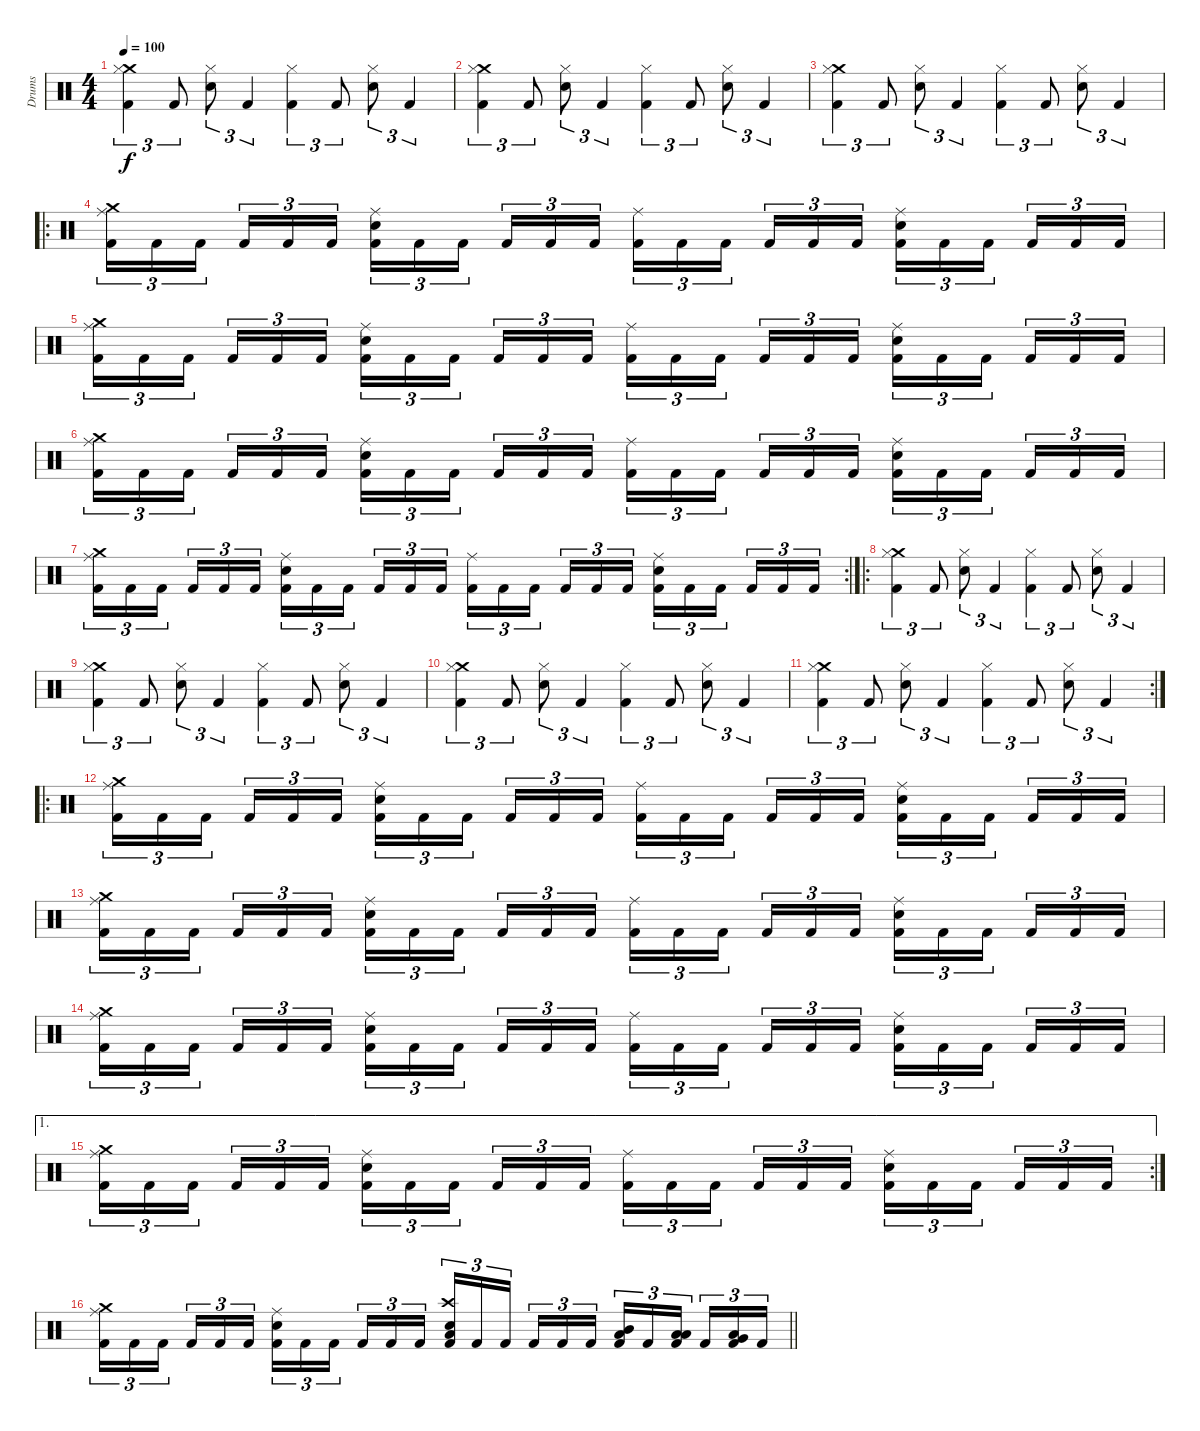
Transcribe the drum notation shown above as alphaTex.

\track ("Drums" "Drums") {instrument percussion}
\staff {score}
\articulation defaults
\ts (4 4)
\tempo 100
\clef neutral
\ks c
("Crash medium (hit)" "Hi-Hat (closed)" "Kick (hit) 2").4{tu (3 2) dy f} "Kick (hit) 2".8{tu (3 2)} ("Hi-Hat (closed)" "Electric Snare (hit)").8{tu (3 2)} "Kick (hit) 2".4{tu (3 2)} ("Hi-Hat (closed)" "Kick (hit) 2").4{tu (3 2)} "Kick (hit) 2".8{tu (3 2)} ("Hi-Hat (closed)" "Electric Snare (hit)").8{tu (3 2)} "Kick (hit) 2".4{tu (3 2)} |
("Crash medium (hit)" "Hi-Hat (closed)" "Kick (hit) 2").4{tu (3 2)} "Kick (hit) 2".8{tu (3 2)} ("Hi-Hat (closed)" "Electric Snare (hit)").8{tu (3 2)} "Kick (hit) 2".4{tu (3 2)} ("Hi-Hat (closed)" "Kick (hit) 2").4{tu (3 2)} "Kick (hit) 2".8{tu (3 2)} ("Hi-Hat (closed)" "Electric Snare (hit)").8{tu (3 2)} "Kick (hit) 2".4{tu (3 2)} |
("Crash medium (hit)" "Hi-Hat (closed)" "Kick (hit) 2").4{tu (3 2)} "Kick (hit) 2".8{tu (3 2)} ("Hi-Hat (closed)" "Electric Snare (hit)").8{tu (3 2)} "Kick (hit) 2".4{tu (3 2)} ("Hi-Hat (closed)" "Kick (hit) 2").4{tu (3 2)} "Kick (hit) 2".8{tu (3 2)} ("Hi-Hat (closed)" "Electric Snare (hit)").8{tu (3 2)} "Kick (hit) 2".4{tu (3 2)} |
\ro
("Crash medium (hit)" "Ride (middle)" "Kick (hit) 2").16{tu (3 2)} "Kick (hit) 2".16{tu (3 2)} "Kick (hit) 2".16{tu (3 2) beam splitsecondary} "Kick (hit) 2".16{tu (3 2)} "Kick (hit) 2".16{tu (3 2)} "Kick (hit) 2".16{tu (3 2)} ("Ride (middle)" "Electric Snare (hit)" "Kick (hit) 2").16{tu (3 2)} "Kick (hit) 2".16{tu (3 2)} "Kick (hit) 2".16{tu (3 2) beam splitsecondary} "Kick (hit) 2".16{tu (3 2)} "Kick (hit) 2".16{tu (3 2)} "Kick (hit) 2".16{tu (3 2)} ("Ride (middle)" "Kick (hit) 2").16{tu (3 2)} "Kick (hit) 2".16{tu (3 2)} "Kick (hit) 2".16{tu (3 2) beam splitsecondary} "Kick (hit) 2".16{tu (3 2)} "Kick (hit) 2".16{tu (3 2)} "Kick (hit) 2".16{tu (3 2)} ("Ride (middle)" "Electric Snare (hit)" "Kick (hit) 2").16{tu (3 2)} "Kick (hit) 2".16{tu (3 2)} "Kick (hit) 2".16{tu (3 2) beam splitsecondary} "Kick (hit) 2".16{tu (3 2)} "Kick (hit) 2".16{tu (3 2)} "Kick (hit) 2".16{tu (3 2)} |
("Crash medium (hit)" "Ride (middle)" "Kick (hit) 2").16{tu (3 2)} "Kick (hit) 2".16{tu (3 2)} "Kick (hit) 2".16{tu (3 2) beam splitsecondary} "Kick (hit) 2".16{tu (3 2)} "Kick (hit) 2".16{tu (3 2)} "Kick (hit) 2".16{tu (3 2)} ("Ride (middle)" "Electric Snare (hit)" "Kick (hit) 2").16{tu (3 2)} "Kick (hit) 2".16{tu (3 2)} "Kick (hit) 2".16{tu (3 2) beam splitsecondary} "Kick (hit) 2".16{tu (3 2)} "Kick (hit) 2".16{tu (3 2)} "Kick (hit) 2".16{tu (3 2)} ("Ride (middle)" "Kick (hit) 2").16{tu (3 2)} "Kick (hit) 2".16{tu (3 2)} "Kick (hit) 2".16{tu (3 2) beam splitsecondary} "Kick (hit) 2".16{tu (3 2)} "Kick (hit) 2".16{tu (3 2)} "Kick (hit) 2".16{tu (3 2)} ("Ride (middle)" "Electric Snare (hit)" "Kick (hit) 2").16{tu (3 2)} "Kick (hit) 2".16{tu (3 2)} "Kick (hit) 2".16{tu (3 2) beam splitsecondary} "Kick (hit) 2".16{tu (3 2)} "Kick (hit) 2".16{tu (3 2)} "Kick (hit) 2".16{tu (3 2)} |
("Crash medium (hit)" "Ride (middle)" "Kick (hit) 2").16{tu (3 2)} "Kick (hit) 2".16{tu (3 2)} "Kick (hit) 2".16{tu (3 2) beam splitsecondary} "Kick (hit) 2".16{tu (3 2)} "Kick (hit) 2".16{tu (3 2)} "Kick (hit) 2".16{tu (3 2)} ("Ride (middle)" "Electric Snare (hit)" "Kick (hit) 2").16{tu (3 2)} "Kick (hit) 2".16{tu (3 2)} "Kick (hit) 2".16{tu (3 2) beam splitsecondary} "Kick (hit) 2".16{tu (3 2)} "Kick (hit) 2".16{tu (3 2)} "Kick (hit) 2".16{tu (3 2)} ("Ride (middle)" "Kick (hit) 2").16{tu (3 2)} "Kick (hit) 2".16{tu (3 2)} "Kick (hit) 2".16{tu (3 2) beam splitsecondary} "Kick (hit) 2".16{tu (3 2)} "Kick (hit) 2".16{tu (3 2)} "Kick (hit) 2".16{tu (3 2)} ("Ride (middle)" "Electric Snare (hit)" "Kick (hit) 2").16{tu (3 2)} "Kick (hit) 2".16{tu (3 2)} "Kick (hit) 2".16{tu (3 2) beam splitsecondary} "Kick (hit) 2".16{tu (3 2)} "Kick (hit) 2".16{tu (3 2)} "Kick (hit) 2".16{tu (3 2)} |
\rc 2
("Crash medium (hit)" "Ride (middle)" "Kick (hit) 2").16{tu (3 2)} "Kick (hit) 2".16{tu (3 2)} "Kick (hit) 2".16{tu (3 2) beam splitsecondary} "Kick (hit) 2".16{tu (3 2)} "Kick (hit) 2".16{tu (3 2)} "Kick (hit) 2".16{tu (3 2)} ("Ride (middle)" "Electric Snare (hit)" "Kick (hit) 2").16{tu (3 2)} "Kick (hit) 2".16{tu (3 2)} "Kick (hit) 2".16{tu (3 2) beam splitsecondary} "Kick (hit) 2".16{tu (3 2)} "Kick (hit) 2".16{tu (3 2)} "Kick (hit) 2".16{tu (3 2)} ("Ride (middle)" "Kick (hit) 2").16{tu (3 2)} "Kick (hit) 2".16{tu (3 2)} "Kick (hit) 2".16{tu (3 2) beam splitsecondary} "Kick (hit) 2".16{tu (3 2)} "Kick (hit) 2".16{tu (3 2)} "Kick (hit) 2".16{tu (3 2)} ("Ride (middle)" "Electric Snare (hit)" "Kick (hit) 2").16{tu (3 2)} "Kick (hit) 2".16{tu (3 2)} "Kick (hit) 2".16{tu (3 2) beam splitsecondary} "Kick (hit) 2".16{tu (3 2)} "Kick (hit) 2".16{tu (3 2)} "Kick (hit) 2".16{tu (3 2)} |
\ro
("Crash medium (hit)" "Hi-Hat (closed)" "Kick (hit) 2").4{tu (3 2)} "Kick (hit) 2".8{tu (3 2)} ("Hi-Hat (closed)" "Electric Snare (hit)").8{tu (3 2)} "Kick (hit) 2".4{tu (3 2)} ("Hi-Hat (closed)" "Kick (hit) 2").4{tu (3 2)} "Kick (hit) 2".8{tu (3 2)} ("Hi-Hat (closed)" "Electric Snare (hit)").8{tu (3 2)} "Kick (hit) 2".4{tu (3 2)} |
("Crash medium (hit)" "Hi-Hat (closed)" "Kick (hit) 2").4{tu (3 2)} "Kick (hit) 2".8{tu (3 2)} ("Hi-Hat (closed)" "Electric Snare (hit)").8{tu (3 2)} "Kick (hit) 2".4{tu (3 2)} ("Hi-Hat (closed)" "Kick (hit) 2").4{tu (3 2)} "Kick (hit) 2".8{tu (3 2)} ("Hi-Hat (closed)" "Electric Snare (hit)").8{tu (3 2)} "Kick (hit) 2".4{tu (3 2)} |
("Crash medium (hit)" "Hi-Hat (closed)" "Kick (hit) 2").4{tu (3 2)} "Kick (hit) 2".8{tu (3 2)} ("Hi-Hat (closed)" "Electric Snare (hit)").8{tu (3 2)} "Kick (hit) 2".4{tu (3 2)} ("Hi-Hat (closed)" "Kick (hit) 2").4{tu (3 2)} "Kick (hit) 2".8{tu (3 2)} ("Hi-Hat (closed)" "Electric Snare (hit)").8{tu (3 2)} "Kick (hit) 2".4{tu (3 2)} |
\rc 2
("Crash medium (hit)" "Hi-Hat (closed)" "Kick (hit) 2").4{tu (3 2)} "Kick (hit) 2".8{tu (3 2)} ("Hi-Hat (closed)" "Electric Snare (hit)").8{tu (3 2)} "Kick (hit) 2".4{tu (3 2)} ("Hi-Hat (closed)" "Kick (hit) 2").4{tu (3 2)} "Kick (hit) 2".8{tu (3 2)} ("Hi-Hat (closed)" "Electric Snare (hit)").8{tu (3 2)} "Kick (hit) 2".4{tu (3 2)} |
\ro
("Crash medium (hit)" "Ride (middle)" "Kick (hit) 2").16{tu (3 2)} "Kick (hit) 2".16{tu (3 2)} "Kick (hit) 2".16{tu (3 2) beam splitsecondary} "Kick (hit) 2".16{tu (3 2)} "Kick (hit) 2".16{tu (3 2)} "Kick (hit) 2".16{tu (3 2)} ("Ride (middle)" "Electric Snare (hit)" "Kick (hit) 2").16{tu (3 2)} "Kick (hit) 2".16{tu (3 2)} "Kick (hit) 2".16{tu (3 2) beam splitsecondary} "Kick (hit) 2".16{tu (3 2)} "Kick (hit) 2".16{tu (3 2)} "Kick (hit) 2".16{tu (3 2)} ("Ride (middle)" "Kick (hit) 2").16{tu (3 2)} "Kick (hit) 2".16{tu (3 2)} "Kick (hit) 2".16{tu (3 2) beam splitsecondary} "Kick (hit) 2".16{tu (3 2)} "Kick (hit) 2".16{tu (3 2)} "Kick (hit) 2".16{tu (3 2)} ("Ride (middle)" "Electric Snare (hit)" "Kick (hit) 2").16{tu (3 2)} "Kick (hit) 2".16{tu (3 2)} "Kick (hit) 2".16{tu (3 2) beam splitsecondary} "Kick (hit) 2".16{tu (3 2)} "Kick (hit) 2".16{tu (3 2)} "Kick (hit) 2".16{tu (3 2)} |
("Crash medium (hit)" "Ride (middle)" "Kick (hit) 2").16{tu (3 2)} "Kick (hit) 2".16{tu (3 2)} "Kick (hit) 2".16{tu (3 2) beam splitsecondary} "Kick (hit) 2".16{tu (3 2)} "Kick (hit) 2".16{tu (3 2)} "Kick (hit) 2".16{tu (3 2)} ("Ride (middle)" "Electric Snare (hit)" "Kick (hit) 2").16{tu (3 2)} "Kick (hit) 2".16{tu (3 2)} "Kick (hit) 2".16{tu (3 2) beam splitsecondary} "Kick (hit) 2".16{tu (3 2)} "Kick (hit) 2".16{tu (3 2)} "Kick (hit) 2".16{tu (3 2)} ("Ride (middle)" "Kick (hit) 2").16{tu (3 2)} "Kick (hit) 2".16{tu (3 2)} "Kick (hit) 2".16{tu (3 2) beam splitsecondary} "Kick (hit) 2".16{tu (3 2)} "Kick (hit) 2".16{tu (3 2)} "Kick (hit) 2".16{tu (3 2)} ("Ride (middle)" "Electric Snare (hit)" "Kick (hit) 2").16{tu (3 2)} "Kick (hit) 2".16{tu (3 2)} "Kick (hit) 2".16{tu (3 2) beam splitsecondary} "Kick (hit) 2".16{tu (3 2)} "Kick (hit) 2".16{tu (3 2)} "Kick (hit) 2".16{tu (3 2)} |
("Crash medium (hit)" "Ride (middle)" "Kick (hit) 2").16{tu (3 2)} "Kick (hit) 2".16{tu (3 2)} "Kick (hit) 2".16{tu (3 2) beam splitsecondary} "Kick (hit) 2".16{tu (3 2)} "Kick (hit) 2".16{tu (3 2)} "Kick (hit) 2".16{tu (3 2)} ("Ride (middle)" "Electric Snare (hit)" "Kick (hit) 2").16{tu (3 2)} "Kick (hit) 2".16{tu (3 2)} "Kick (hit) 2".16{tu (3 2) beam splitsecondary} "Kick (hit) 2".16{tu (3 2)} "Kick (hit) 2".16{tu (3 2)} "Kick (hit) 2".16{tu (3 2)} ("Ride (middle)" "Kick (hit) 2").16{tu (3 2)} "Kick (hit) 2".16{tu (3 2)} "Kick (hit) 2".16{tu (3 2) beam splitsecondary} "Kick (hit) 2".16{tu (3 2)} "Kick (hit) 2".16{tu (3 2)} "Kick (hit) 2".16{tu (3 2)} ("Ride (middle)" "Electric Snare (hit)" "Kick (hit) 2").16{tu (3 2)} "Kick (hit) 2".16{tu (3 2)} "Kick (hit) 2".16{tu (3 2) beam splitsecondary} "Kick (hit) 2".16{tu (3 2)} "Kick (hit) 2".16{tu (3 2)} "Kick (hit) 2".16{tu (3 2)} |
\ae 1
\rc 2
("Crash medium (hit)" "Ride (middle)" "Kick (hit) 2").16{tu (3 2)} "Kick (hit) 2".16{tu (3 2)} "Kick (hit) 2".16{tu (3 2) beam splitsecondary} "Kick (hit) 2".16{tu (3 2)} "Kick (hit) 2".16{tu (3 2)} "Kick (hit) 2".16{tu (3 2)} ("Ride (middle)" "Electric Snare (hit)" "Kick (hit) 2").16{tu (3 2)} "Kick (hit) 2".16{tu (3 2)} "Kick (hit) 2".16{tu (3 2) beam splitsecondary} "Kick (hit) 2".16{tu (3 2)} "Kick (hit) 2".16{tu (3 2)} "Kick (hit) 2".16{tu (3 2)} ("Ride (middle)" "Kick (hit) 2").16{tu (3 2)} "Kick (hit) 2".16{tu (3 2)} "Kick (hit) 2".16{tu (3 2) beam splitsecondary} "Kick (hit) 2".16{tu (3 2)} "Kick (hit) 2".16{tu (3 2)} "Kick (hit) 2".16{tu (3 2)} ("Ride (middle)" "Electric Snare (hit)" "Kick (hit) 2").16{tu (3 2)} "Kick (hit) 2".16{tu (3 2)} "Kick (hit) 2".16{tu (3 2) beam splitsecondary} "Kick (hit) 2".16{tu (3 2)} "Kick (hit) 2".16{tu (3 2)} "Kick (hit) 2".16{tu (3 2)} |
\barLineRight lightlight
("Crash medium (hit)" "Ride (middle)" "Kick (hit) 2").16{tu (3 2)} "Kick (hit) 2".16{tu (3 2)} "Kick (hit) 2".16{tu (3 2) beam splitsecondary} "Kick (hit) 2".16{tu (3 2)} "Kick (hit) 2".16{tu (3 2)} "Kick (hit) 2".16{tu (3 2)} ("Ride (middle)" "Electric Snare (hit)" "Kick (hit) 2").16{tu (3 2)} "Kick (hit) 2".16{tu (3 2)} "Kick (hit) 2".16{tu (3 2) beam splitsecondary} "Kick (hit) 2".16{tu (3 2)} "Kick (hit) 2".16{tu (3 2)} "Kick (hit) 2".16{tu (3 2)} ("Crash high (hit)" "Low Floor Tom (hit)" "Electric Snare (hit)" "Kick (hit) 2").16{tu (3 2)} "Kick (hit) 2".16{tu (3 2)} "Kick (hit) 2".16{tu (3 2) beam splitsecondary} "Kick (hit) 2".16{tu (3 2)} "Kick (hit) 2".16{tu (3 2)} "Kick (hit) 2".16{tu (3 2)} ("Mid Tom (hit)" "Low Floor Tom (hit)" "Kick (hit) 2").16{tu (3 2)} "Kick (hit) 2".16{tu (3 2)} ("Low Tom (hit)" "Low Floor Tom (hit)" "Kick (hit) 2").16{tu (3 2) beam splitsecondary} "Kick (hit) 2".16{tu (3 2)} ("Very Low Tom (hit)" "Low Floor Tom (hit)" "Kick (hit) 2").16{tu (3 2)} "Kick (hit) 2".16{tu (3 2)}
